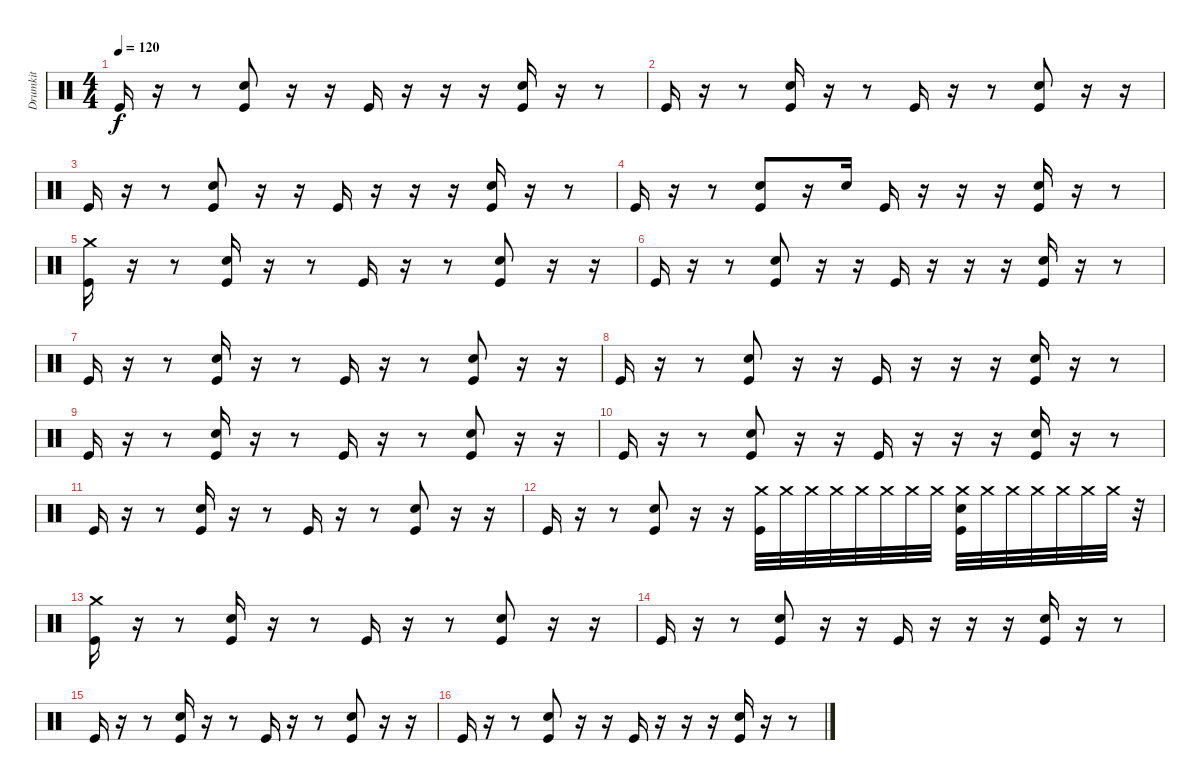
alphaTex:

\track ("Drumkit" "Drumkit") {instrument percussion}
\staff {score}
\articulation defaults
\ts (4 4)
\tempo 120
\clef neutral
\ks c "Kick (hit)".16{dy f}
r.16 r.8 ("Kick (hit)" "Snare (hit) 2").8 r.16 r.16 "Kick (hit)".16 r.16 r.16 r.16 ("Kick (hit)" "Snare (hit) 2").16 r.16 r.8 |
"Kick (hit)".16 r.16 r.8 ("Kick (hit)" "Snare (hit) 2").16 r.16 r.8 "Kick (hit)".16 r.16 r.8 ("Kick (hit)" "Snare (hit) 2").8 r.16 r.16 |
"Kick (hit)".16 r.16 r.8 ("Kick (hit)" "Snare (hit) 2").8 r.16 r.16 "Kick (hit)".16 r.16 r.16 r.16 ("Kick (hit)" "Snare (hit) 2").16 r.16 r.8 |
"Kick (hit)".16 r.16 r.8 ("Kick (hit)" "Snare (hit) 2").8 r.16 "Snare (hit) 2".16 "Kick (hit)".16 r.16 r.16 r.16 ("Kick (hit)" "Snare (hit) 2").16 r.16 r.8 |
("Kick (hit)" "Crash medium (hit)").16 r.16 r.8 ("Kick (hit)" "Snare (hit) 2").16 r.16 r.8 "Kick (hit)".16 r.16 r.8 ("Kick (hit)" "Snare (hit) 2").8 r.16 r.16 |
"Kick (hit)".16 r.16 r.8 ("Kick (hit)" "Snare (hit) 2").8 r.16 r.16 "Kick (hit)".16 r.16 r.16 r.16 ("Kick (hit)" "Snare (hit) 2").16 r.16 r.8 |
"Kick (hit)".16 r.16 r.8 ("Kick (hit)" "Snare (hit) 2").16 r.16 r.8 "Kick (hit)".16 r.16 r.8 ("Kick (hit)" "Snare (hit) 2").8 r.16 r.16 |
"Kick (hit)".16 r.16 r.8 ("Kick (hit)" "Snare (hit) 2").8 r.16 r.16 "Kick (hit)".16 r.16 r.16 r.16 ("Kick (hit)" "Snare (hit) 2").16 r.16 r.8 |
"Kick (hit)".16 r.16 r.8 ("Kick (hit)" "Snare (hit) 2").16 r.16 r.8 "Kick (hit)".16 r.16 r.8 ("Kick (hit)" "Snare (hit) 2").8 r.16 r.16 |
"Kick (hit)".16 r.16 r.8 ("Kick (hit)" "Snare (hit) 2").8 r.16 r.16 "Kick (hit)".16 r.16 r.16 r.16 ("Kick (hit)" "Snare (hit) 2").16 r.16 r.8 |
"Kick (hit)".16 r.16 r.8 ("Kick (hit)" "Snare (hit) 2").16 r.16 r.8 "Kick (hit)".16 r.16 r.8 ("Kick (hit)" "Snare (hit) 2").8 r.16 r.16 |
"Kick (hit)".16 r.16 r.8 ("Kick (hit)" "Snare (hit) 2").8 r.16 r.16 ("Kick (hit)" "Crash medium (hit)").32 "Crash medium (hit)".32 "Crash medium (hit)".32 "Crash medium (hit)".32 "Crash medium (hit)".32 "Crash medium (hit)".32 "Crash medium (hit)".32 "Crash medium (hit)".32 ("Crash medium (hit)" "Kick (hit)" "Snare (hit) 2").32 "Crash medium (hit)".32 "Crash medium (hit)".32 "Crash medium (hit)".32 "Crash medium (hit)".32 "Crash medium (hit)".32 "Crash medium (hit)".32 r.32 |
("Kick (hit)" "Crash medium (hit)").16 r.16 r.8 ("Kick (hit)" "Snare (hit) 2").16 r.16 r.8 "Kick (hit)".16 r.16 r.8 ("Kick (hit)" "Snare (hit) 2").8 r.16 r.16 |
"Kick (hit)".16 r.16 r.8 ("Kick (hit)" "Snare (hit) 2").8 r.16 r.16 "Kick (hit)".16 r.16 r.16 r.16 ("Kick (hit)" "Snare (hit) 2").16 r.16 r.8 |
"Kick (hit)".16 r.16 r.8 ("Kick (hit)" "Snare (hit) 2").16 r.16 r.8 "Kick (hit)".16 r.16 r.8 ("Kick (hit)" "Snare (hit) 2").8 r.16 r.16 |
"Kick (hit)".16 r.16 r.8 ("Kick (hit)" "Snare (hit) 2").8 r.16 r.16 "Kick (hit)".16 r.16 r.16 r.16 ("Kick (hit)" "Snare (hit) 2").16 r.16 r.8
